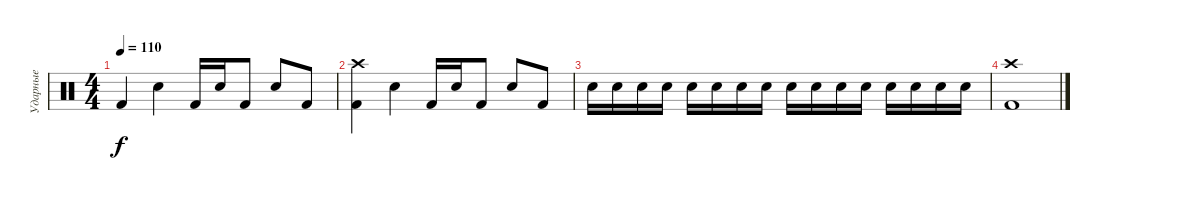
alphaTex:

\track ("Ударные" "Ударные") {instrument percussion}
\staff {score}
\articulation defaults
\ts (4 4)
\tempo 110
\clef neutral
\ks c "Kick (hit) 2".4{dy f} "Electric Snare (hit)".4 "Kick (hit) 2".16 "Electric Snare (hit)".16 "Kick (hit) 2".8 "Electric Snare (hit)".8 "Kick (hit) 2".8
|
("Crash high (hit)" "Kick (hit) 2").4 "Electric Snare (hit)".4 "Kick (hit) 2".16 "Electric Snare (hit)".16 "Kick (hit) 2".8 "Electric Snare (hit)".8 "Kick (hit) 2".8 |
"Electric Snare (hit)".16 "Electric Snare (hit)".16 "Electric Snare (hit)".16 "Electric Snare (hit)".16 "Electric Snare (hit)".16 "Electric Snare (hit)".16 "Electric Snare (hit)".16 "Electric Snare (hit)".16 "Electric Snare (hit)".16 "Electric Snare (hit)".16 "Electric Snare (hit)".16 "Electric Snare (hit)".16 "Electric Snare (hit)".16 "Electric Snare (hit)".16 "Electric Snare (hit)".16 "Electric Snare (hit)".16 |
("Kick (hit) 2" "Crash high (hit)").1
